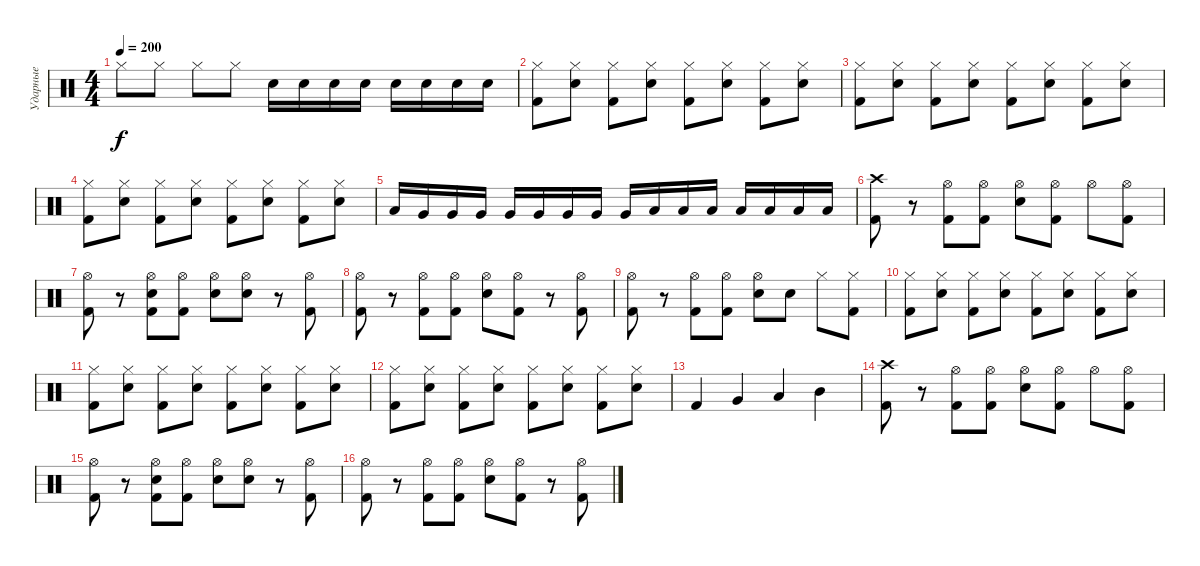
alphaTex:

\track ("Ударные" "Ударные") {instrument percussion}
\staff {score}
\articulation defaults
\ts (4 4)
\tempo 200
\clef neutral
\ks c "Hi-Hat (closed)".8{dy f} "Hi-Hat (closed)".8 "Hi-Hat (closed)".8 "Hi-Hat (closed)".8 "Electric Snare (hit)".16 "Electric Snare (hit)".16 "Electric Snare (hit)".16 "Electric Snare (hit)".16 "Electric Snare (hit)".16 "Electric Snare (hit)".16 "Electric Snare (hit)".16 "Electric Snare (hit)".16
|
("Kick (hit) 2" "Hi-Hat (closed)").8 ("Electric Snare (hit)" "Hi-Hat (closed)").8 ("Kick (hit) 2" "Hi-Hat (closed)").8 ("Electric Snare (hit)" "Hi-Hat (closed)").8 ("Kick (hit) 2" "Hi-Hat (closed)").8 ("Electric Snare (hit)" "Hi-Hat (closed)").8 ("Kick (hit) 2" "Hi-Hat (closed)").8 ("Electric Snare (hit)" "Hi-Hat (closed)").8 |
("Kick (hit) 2" "Hi-Hat (closed)").8 ("Electric Snare (hit)" "Hi-Hat (closed)").8 ("Kick (hit) 2" "Hi-Hat (closed)").8 ("Electric Snare (hit)" "Hi-Hat (closed)").8 ("Kick (hit) 2" "Hi-Hat (closed)").8 ("Electric Snare (hit)" "Hi-Hat (closed)").8 ("Kick (hit) 2" "Hi-Hat (closed)").8 ("Electric Snare (hit)" "Hi-Hat (closed)").8 |
("Kick (hit) 2" "Hi-Hat (closed)").8 ("Electric Snare (hit)" "Hi-Hat (closed)").8 ("Kick (hit) 2" "Hi-Hat (closed)").8 ("Electric Snare (hit)" "Hi-Hat (closed)").8 ("Kick (hit) 2" "Hi-Hat (closed)").8 ("Electric Snare (hit)" "Hi-Hat (closed)").8 ("Kick (hit) 2" "Hi-Hat (closed)").8 ("Electric Snare (hit)" "Hi-Hat (closed)").8 |
"Low Floor Tom (hit)".16 "Very Low Tom (hit)".16 "Very Low Tom (hit)".16 "Very Low Tom (hit)".16 "Very Low Tom (hit)".16 "Very Low Tom (hit)".16 "Very Low Tom (hit)".16 "Very Low Tom (hit)".16 "Very Low Tom (hit)".16 "Low Tom (hit)".16 "Low Tom (hit)".16 "Low Tom (hit)".16 "Low Tom (hit)".16 "Low Floor Tom (hit)".16 "Low Floor Tom (hit)".16 "Low Floor Tom (hit)".16 |
("Kick (hit) 2" "Crash high (hit)").8 r.8 ("Kick (hit) 2" "Hi-Hat (open)").8 ("Kick (hit) 2" "Hi-Hat (open)").8 ("Electric Snare (hit)" "Hi-Hat (open)").8 ("Kick (hit) 2" "Hi-Hat (open)").8 "Hi-Hat (open)".8 ("Kick (hit) 2" "Hi-Hat (open)").8 |
("Kick (hit) 2" "Hi-Hat (open)").8 r.8 ("Kick (hit) 2" "Hi-Hat (open)" "Snare (hit)").8 ("Kick (hit) 2" "Hi-Hat (open)").8 ("Electric Snare (hit)" "Hi-Hat (open)").8 ("Electric Snare (hit)" "Hi-Hat (open)").8 r.8 ("Kick (hit) 2" "Hi-Hat (open)").8 |
("Kick (hit) 2" "Hi-Hat (open)").8 r.8 ("Kick (hit) 2" "Hi-Hat (open)").8 ("Kick (hit) 2" "Hi-Hat (open)").8 ("Electric Snare (hit)" "Hi-Hat (open)").8 ("Kick (hit) 2" "Hi-Hat (open)").8 r.8 ("Kick (hit) 2" "Hi-Hat (open)").8 |
("Kick (hit) 2" "Hi-Hat (open)").8 r.8 ("Kick (hit) 2" "Hi-Hat (open)").8 ("Kick (hit) 2" "Hi-Hat (open)").8 ("Electric Snare (hit)" "Hi-Hat (open)").8 "Electric Snare (hit)".8 "Hi-Hat (closed)".8 ("Kick (hit) 2" "Hi-Hat (closed)").8 |
("Kick (hit) 2" "Hi-Hat (closed)").8 ("Electric Snare (hit)" "Hi-Hat (closed)").8 ("Kick (hit) 2" "Hi-Hat (closed)").8 ("Electric Snare (hit)" "Hi-Hat (closed)").8 ("Kick (hit) 2" "Hi-Hat (closed)").8 ("Electric Snare (hit)" "Hi-Hat (closed)").8 ("Kick (hit) 2" "Hi-Hat (closed)").8 ("Electric Snare (hit)" "Hi-Hat (closed)").8 |
("Kick (hit) 2" "Hi-Hat (closed)").8 ("Electric Snare (hit)" "Hi-Hat (closed)").8 ("Kick (hit) 2" "Hi-Hat (closed)").8 ("Electric Snare (hit)" "Hi-Hat (closed)").8 ("Kick (hit) 2" "Hi-Hat (closed)").8 ("Electric Snare (hit)" "Hi-Hat (closed)").8 ("Kick (hit) 2" "Hi-Hat (closed)").8 ("Electric Snare (hit)" "Hi-Hat (closed)").8 |
("Kick (hit) 2" "Hi-Hat (closed)").8 ("Electric Snare (hit)" "Hi-Hat (closed)").8 ("Kick (hit) 2" "Hi-Hat (closed)").8 ("Electric Snare (hit)" "Hi-Hat (closed)").8 ("Kick (hit) 2" "Hi-Hat (closed)").8 ("Electric Snare (hit)" "Hi-Hat (closed)").8 ("Kick (hit) 2" "Hi-Hat (closed)").8 ("Electric Snare (hit)" "Hi-Hat (closed)").8 |
"Kick (hit) 2".4 "Very Low Tom (hit)".4 "Low Floor Tom (hit)".4 "Mid Tom (hit)".4 |
("Kick (hit) 2" "Crash high (hit)").8 r.8 ("Kick (hit) 2" "Hi-Hat (open)").8 ("Kick (hit) 2" "Hi-Hat (open)").8 ("Electric Snare (hit)" "Hi-Hat (open)").8 ("Kick (hit) 2" "Hi-Hat (open)").8 "Hi-Hat (open)".8 ("Kick (hit) 2" "Hi-Hat (open)").8 |
("Kick (hit) 2" "Hi-Hat (open)").8 r.8 ("Kick (hit) 2" "Hi-Hat (open)" "Snare (hit)").8 ("Kick (hit) 2" "Hi-Hat (open)").8 ("Electric Snare (hit)" "Hi-Hat (open)").8 ("Electric Snare (hit)" "Hi-Hat (open)").8 r.8 ("Kick (hit) 2" "Hi-Hat (open)").8 |
("Kick (hit) 2" "Hi-Hat (open)").8 r.8 ("Kick (hit) 2" "Hi-Hat (open)").8 ("Kick (hit) 2" "Hi-Hat (open)").8 ("Electric Snare (hit)" "Hi-Hat (open)").8 ("Kick (hit) 2" "Hi-Hat (open)").8 r.8 ("Kick (hit) 2" "Hi-Hat (open)").8
